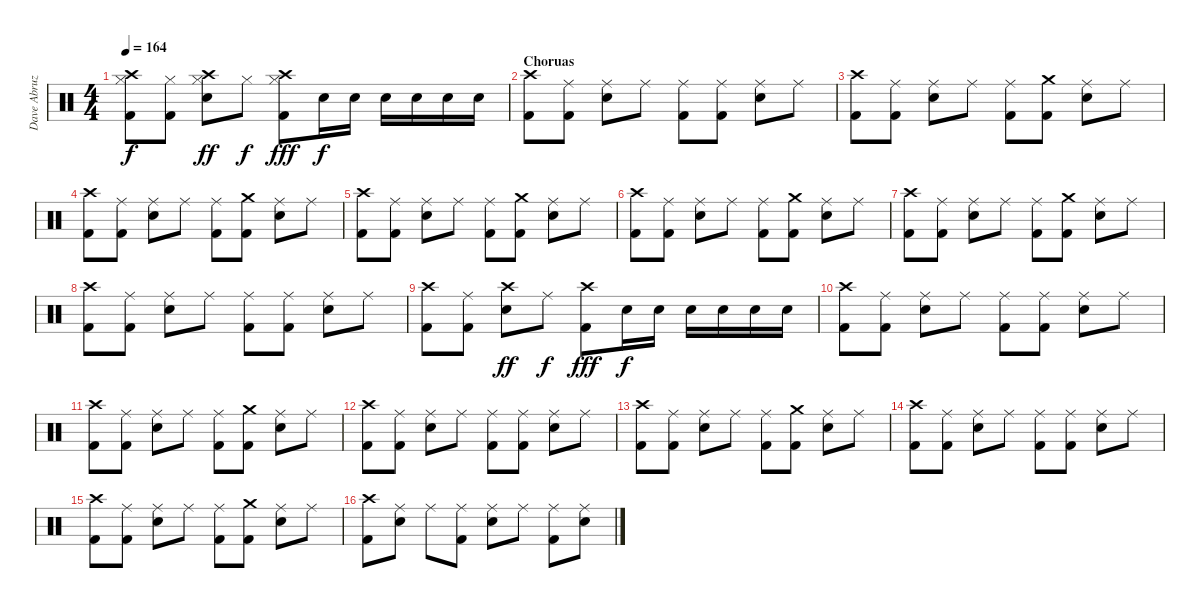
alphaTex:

\track ("Dave Abruzzese" "Dave Abruz") {instrument percussion}
\staff {score}
\articulation defaults
\ts (4 4)
\tempo 164
\clef neutral
\ks c
("Crash high (hit)" "Kick (hit) 2" "Hi-Hat (closed)").8{dy f} ("Kick (hit) 2" "Hi-Hat (closed)").8 ("Crash high (hit)" "Electric Snare (hit)" "Hi-Hat (closed)").8{dy ff} "Hi-Hat (closed)".8{dy f} ("Crash high (hit)" "Kick (hit) 2" "Hi-Hat (closed)").8{dy fff} "Electric Snare (hit)".16{dy f} "Electric Snare (hit)".16 "Electric Snare (hit)".16 "Electric Snare (hit)".16 "Electric Snare (hit)".16 "Electric Snare (hit)".16 |
\section ("" "Choruas")
("Kick (hit) 2" "Crash high (hit)").8 ("Kick (hit) 2" "Ride (middle)").8 ("Electric Snare (hit)" "Ride (middle)").8 "Ride (middle)".8 ("Kick (hit) 2" "Ride (middle)").8 ("Kick (hit) 2" "Ride (middle)").8 ("Electric Snare (hit)" "Ride (middle)").8 "Ride (middle)".8 |
("Kick (hit) 2" "Crash high (hit)").8 ("Kick (hit) 2" "Ride (middle)").8 ("Electric Snare (hit)" "Ride (middle)").8 "Ride (middle)".8 ("Kick (hit) 2" "Ride (middle)").8 ("Kick (hit) 2" "Crash medium (hit)").8 ("Electric Snare (hit)" "Ride (middle)").8 "Ride (middle)".8 |
("Kick (hit) 2" "Crash high (hit)").8 ("Kick (hit) 2" "Ride (middle)").8 ("Electric Snare (hit)" "Ride (middle)").8 "Ride (middle)".8 ("Kick (hit) 2" "Ride (middle)").8 ("Kick (hit) 2" "Crash medium (hit)").8 ("Electric Snare (hit)" "Ride (middle)").8 "Ride (middle)".8 |
("Kick (hit) 2" "Crash high (hit)").8 ("Kick (hit) 2" "Ride (middle)").8 ("Electric Snare (hit)" "Ride (middle)").8 "Ride (middle)".8 ("Kick (hit) 2" "Ride (middle)").8 ("Kick (hit) 2" "Crash medium (hit)").8 ("Electric Snare (hit)" "Ride (middle)").8 "Ride (middle)".8 |
("Kick (hit) 2" "Crash high (hit)").8 ("Kick (hit) 2" "Ride (middle)").8 ("Electric Snare (hit)" "Ride (middle)").8 "Ride (middle)".8 ("Kick (hit) 2" "Ride (middle)").8 ("Kick (hit) 2" "Crash medium (hit)").8 ("Electric Snare (hit)" "Ride (middle)").8 "Ride (middle)".8 |
("Kick (hit) 2" "Crash high (hit)").8 ("Kick (hit) 2" "Ride (middle)").8 ("Electric Snare (hit)" "Ride (middle)").8 "Ride (middle)".8 ("Kick (hit) 2" "Ride (middle)").8 ("Kick (hit) 2" "Crash medium (hit)").8 ("Electric Snare (hit)" "Ride (middle)").8 "Ride (middle)".8 |
("Kick (hit) 2" "Crash high (hit)").8 ("Kick (hit) 2" "Ride (middle)").8 ("Electric Snare (hit)" "Ride (middle)").8 "Ride (middle)".8 ("Kick (hit) 2" "Ride (middle)").8 ("Kick (hit) 2" "Ride (middle)").8 ("Electric Snare (hit)" "Ride (middle)").8 "Ride (middle)".8 |
("Crash high (hit)" "Kick (hit) 2").8 ("Kick (hit) 2" "Ride (middle)").8 ("Crash high (hit)" "Electric Snare (hit)").8{dy ff} "Ride (middle)".8{dy f} ("Crash high (hit)" "Kick (hit) 2").8{dy fff} "Electric Snare (hit)".16{dy f} "Electric Snare (hit)".16 "Electric Snare (hit)".16 "Electric Snare (hit)".16 "Electric Snare (hit)".16 "Electric Snare (hit)".16 |
("Kick (hit) 2" "Crash high (hit)").8 ("Kick (hit) 2" "Ride (middle)").8 ("Electric Snare (hit)" "Ride (middle)").8 "Ride (middle)".8 ("Kick (hit) 2" "Ride (middle)").8 ("Kick (hit) 2" "Ride (middle)").8 ("Electric Snare (hit)" "Ride (middle)").8 "Ride (middle)".8 |
("Kick (hit) 2" "Crash high (hit)").8 ("Kick (hit) 2" "Ride (middle)").8 ("Electric Snare (hit)" "Ride (middle)").8 "Ride (middle)".8 ("Kick (hit) 2" "Ride (middle)").8 ("Kick (hit) 2" "Crash medium (hit)").8 ("Electric Snare (hit)" "Ride (middle)").8 "Ride (middle)".8 |
("Kick (hit) 2" "Crash high (hit)").8 ("Kick (hit) 2" "Ride (middle)").8 ("Electric Snare (hit)" "Ride (middle)").8 "Ride (middle)".8 ("Kick (hit) 2" "Ride (middle)").8 ("Kick (hit) 2" "Ride (middle)").8 ("Electric Snare (hit)" "Ride (middle)").8 "Ride (middle)".8 |
("Kick (hit) 2" "Crash high (hit)").8 ("Kick (hit) 2" "Ride (middle)").8 ("Electric Snare (hit)" "Ride (middle)").8 "Ride (middle)".8 ("Kick (hit) 2" "Ride (middle)").8 ("Kick (hit) 2" "Crash medium (hit)").8 ("Electric Snare (hit)" "Ride (middle)").8 "Ride (middle)".8 |
("Kick (hit) 2" "Crash high (hit)").8 ("Kick (hit) 2" "Ride (middle)").8 ("Electric Snare (hit)" "Ride (middle)").8 "Ride (middle)".8 ("Kick (hit) 2" "Ride (middle)").8 ("Kick (hit) 2" "Ride (middle)").8 ("Electric Snare (hit)" "Ride (middle)").8 "Ride (middle)".8 |
("Kick (hit) 2" "Crash high (hit)").8 ("Kick (hit) 2" "Ride (middle)").8 ("Electric Snare (hit)" "Ride (middle)").8 "Ride (middle)".8 ("Kick (hit) 2" "Ride (middle)").8 ("Kick (hit) 2" "Crash medium (hit)").8 ("Electric Snare (hit)" "Ride (middle)").8 "Ride (middle)".8 |
("Kick (hit) 2" "Crash high (hit)").8 ("Electric Snare (hit)" "Ride (middle)").8 "Ride (middle)".8 ("Kick (hit) 2" "Ride (middle)").8 ("Electric Snare (hit)" "Ride (middle)").8 "Ride (middle)".8 ("Kick (hit) 2" "Ride (middle)").8 ("Electric Snare (hit)" "Ride (middle)").8
